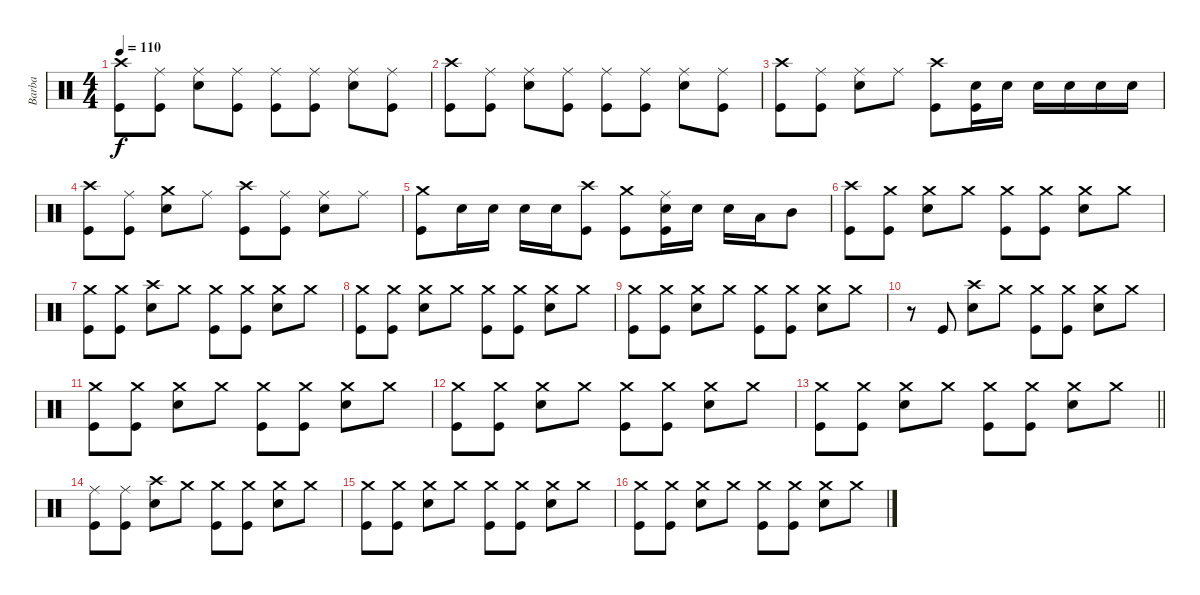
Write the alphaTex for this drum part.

\track ("Barba" "Barba") {instrument percussion}
\staff {score}
\articulation defaults
\ts (4 4)
\tempo 110
\clef neutral
\ks c
("Crash high (hit)" "Kick (hit)").8{dy f} ("Ride (middle)" "Kick (hit)").8 ("Ride (middle)" "Electric Snare (hit)").8 ("Ride (middle)" "Kick (hit)").8 ("Ride (middle)" "Kick (hit)").8 ("Ride (middle)" "Kick (hit)").8 ("Ride (middle)" "Electric Snare (hit)").8 ("Ride (middle)" "Kick (hit)").8 |
("Crash high (hit)" "Kick (hit)").8 ("Ride (middle)" "Kick (hit)").8 ("Ride (middle)" "Electric Snare (hit)").8 ("Ride (middle)" "Kick (hit)").8 ("Ride (middle)" "Kick (hit)").8 ("Ride (middle)" "Kick (hit)").8 ("Ride (middle)" "Electric Snare (hit)").8 ("Ride (middle)" "Kick (hit)").8 |
("Crash high (hit)" "Kick (hit)").8 ("Ride (middle)" "Kick (hit)").8 ("Ride (middle)" "Electric Snare (hit)").8 "Ride (middle)".8 ("Crash high (hit)" "Kick (hit)").8 ("Electric Snare (hit)" "Kick (hit)").16 "Electric Snare (hit)".16 "Electric Snare (hit)".16 "Electric Snare (hit)".16 "Electric Snare (hit)".16 "Electric Snare (hit)".16 |
("Crash high (hit)" "Kick (hit)").8 ("Ride (middle)" "Kick (hit)").8 ("Crash medium (hit)" "Electric Snare (hit)").8 "Ride (middle)".8 ("Crash high (hit)" "Kick (hit)").8 ("Ride (middle)" "Kick (hit)").8 ("Ride (middle)" "Electric Snare (hit)").8 "Ride (middle)".8 |
("Crash medium (hit)" "Kick (hit)").8 "Electric Snare (hit)".16 "Electric Snare (hit)".16 "Electric Snare (hit)".16 "Electric Snare (hit)".16 ("Crash high (hit)" "Kick (hit)").8 ("Crash medium (hit)" "Kick (hit)").8 ("Ride (middle)" "Electric Snare (hit)" "Kick (hit)").16 "Electric Snare (hit)".16 "Electric Snare (hit)".16 "Low Tom (hit)".16 "Mid Tom (hit)".8 |
("Crash high (hit)" "Kick (hit)").8 ("Crash medium (hit)" "Kick (hit)").8 ("Crash medium (hit)" "Electric Snare (hit)").8 "Crash medium (hit)".8 ("Crash medium (hit)" "Kick (hit)").8 ("Crash medium (hit)" "Kick (hit)").8 ("Crash medium (hit)" "Electric Snare (hit)").8 "Crash medium (hit)".8 |
("Crash medium (hit)" "Kick (hit)").8 ("Crash medium (hit)" "Kick (hit)").8 ("Crash high (hit)" "Electric Snare (hit)").8 "Crash medium (hit)".8 ("Crash medium (hit)" "Kick (hit)").8 ("Crash medium (hit)" "Kick (hit)").8 ("Crash medium (hit)" "Electric Snare (hit)").8 "Crash medium (hit)".8 |
("Crash medium (hit)" "Kick (hit)").8 ("Crash medium (hit)" "Kick (hit)").8 ("Crash medium (hit)" "Electric Snare (hit)").8 "Crash medium (hit)".8 ("Crash medium (hit)" "Kick (hit)").8 ("Crash medium (hit)" "Kick (hit)").8 ("Crash medium (hit)" "Electric Snare (hit)").8 "Crash medium (hit)".8 |
("Crash medium (hit)" "Kick (hit)").8 ("Crash medium (hit)" "Kick (hit)").8 ("Crash medium (hit)" "Electric Snare (hit)").8 "Crash medium (hit)".8 ("Crash medium (hit)" "Kick (hit)").8 ("Crash medium (hit)" "Kick (hit)").8 ("Crash medium (hit)" "Electric Snare (hit)").8 "Crash medium (hit)".8 |
r.8 "Kick (hit)".8 ("Crash high (hit)" "Electric Snare (hit)").8 "Crash medium (hit)".8 ("Crash medium (hit)" "Kick (hit)").8 ("Crash medium (hit)" "Kick (hit)").8 ("Crash medium (hit)" "Electric Snare (hit)").8 "Crash medium (hit)".8 |
("Crash medium (hit)" "Kick (hit)").8 ("Crash medium (hit)" "Kick (hit)").8 ("Crash medium (hit)" "Electric Snare (hit)").8 "Crash medium (hit)".8 ("Crash medium (hit)" "Kick (hit)").8 ("Crash medium (hit)" "Kick (hit)").8 ("Crash medium (hit)" "Electric Snare (hit)").8 "Crash medium (hit)".8 |
("Crash medium (hit)" "Kick (hit)").8 ("Crash medium (hit)" "Kick (hit)").8 ("Crash medium (hit)" "Electric Snare (hit)").8 "Crash medium (hit)".8 ("Crash medium (hit)" "Kick (hit)").8 ("Crash medium (hit)" "Kick (hit)").8 ("Crash medium (hit)" "Electric Snare (hit)").8 "Crash medium (hit)".8 |
\barLineRight lightlight
("Crash medium (hit)" "Kick (hit)").8 ("Crash medium (hit)" "Kick (hit)").8 ("Crash medium (hit)" "Electric Snare (hit)").8 "Crash medium (hit)".8 ("Crash medium (hit)" "Kick (hit)").8 ("Crash medium (hit)" "Kick (hit)").8 ("Crash medium (hit)" "Electric Snare (hit)").8 "Crash medium (hit)".8 |
("Ride (middle)" "Kick (hit)").8 ("Ride (middle)" "Kick (hit)").8 ("Crash high (hit)" "Electric Snare (hit)").8 "Crash medium (hit)".8 ("Crash medium (hit)" "Kick (hit)").8 ("Crash medium (hit)" "Kick (hit)").8 ("Crash medium (hit)" "Electric Snare (hit)").8 "Crash medium (hit)".8 |
("Crash medium (hit)" "Kick (hit)").8 ("Crash medium (hit)" "Kick (hit)").8 ("Crash medium (hit)" "Electric Snare (hit)").8 "Crash medium (hit)".8 ("Crash medium (hit)" "Kick (hit)").8 ("Crash medium (hit)" "Kick (hit)").8 ("Crash medium (hit)" "Electric Snare (hit)").8 "Crash medium (hit)".8 |
("Crash medium (hit)" "Kick (hit)").8 ("Crash medium (hit)" "Kick (hit)").8 ("Crash medium (hit)" "Electric Snare (hit)").8 "Crash medium (hit)".8 ("Crash medium (hit)" "Kick (hit)").8 ("Crash medium (hit)" "Kick (hit)").8 ("Crash medium (hit)" "Electric Snare (hit)").8 "Crash medium (hit)".8
